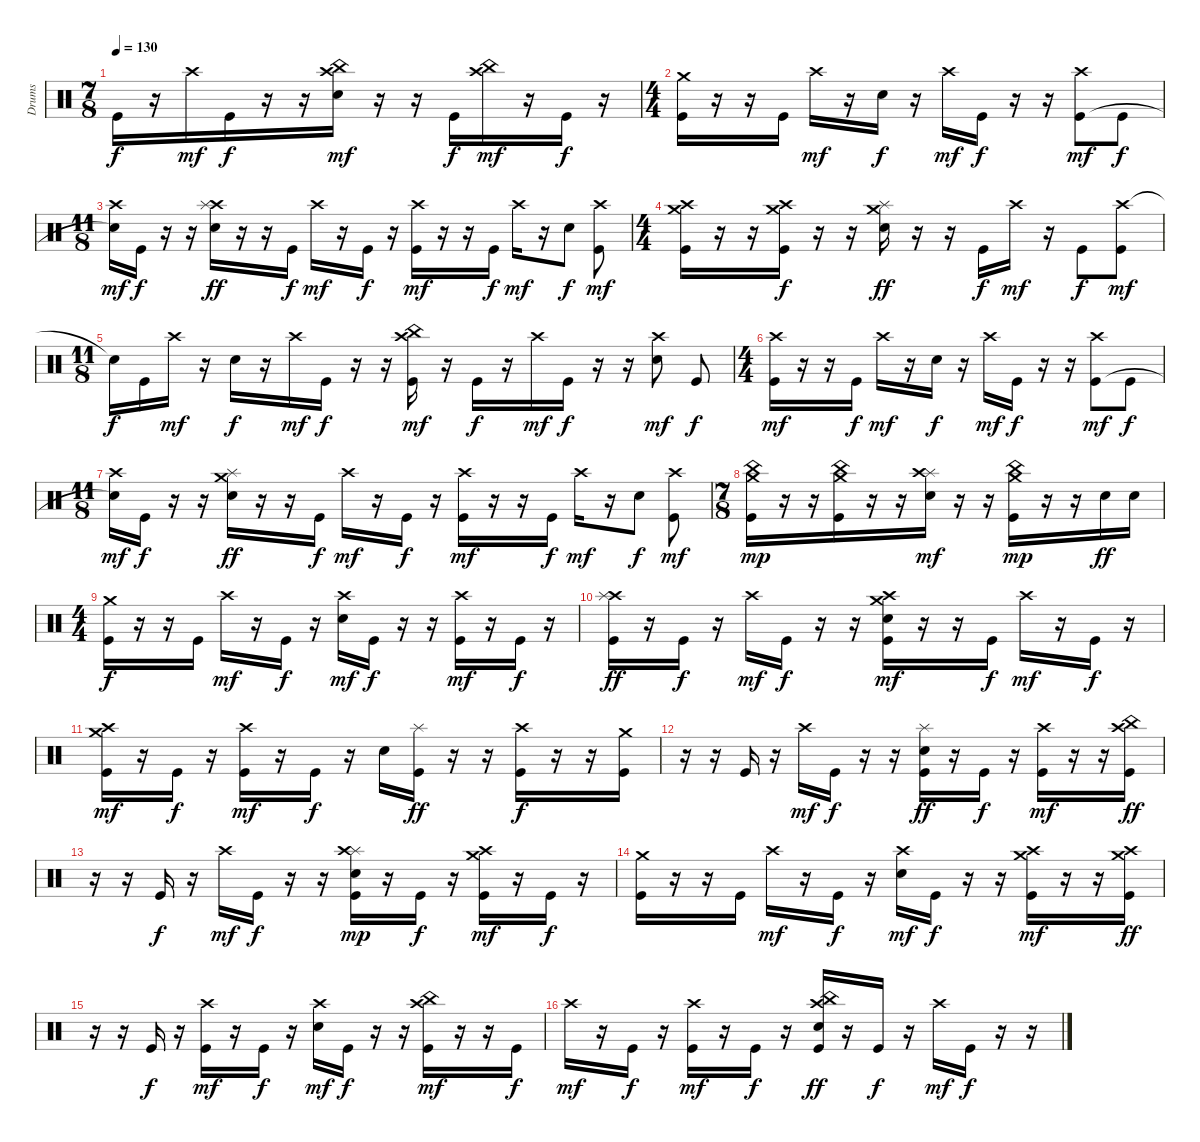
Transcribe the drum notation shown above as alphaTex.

\track ("Drums" "Drums") {instrument percussion}
\staff {score}
\articulation defaults
\ts (7 8)
\tempo 130
\clef neutral
\ks c "Kick (hit)".16{dy f}
r.16 "Crash high (hit)".16{dy mf} "Kick (hit)".16{dy f} r.16 r.16 ("Crash high (hit)" "China (hit)" "Electric Snare (hit)").16{dy mf} r.16 r.16 "Kick (hit)".16{dy f} ("Crash high (hit)" "China (hit)").16{dy mf} r.16 "Kick (hit)".16{dy f} r.16 |
\ts (4 4)
("Crash medium (hit)" "Kick (hit)").16 r.16 r.16 "Kick (hit)".16 "Crash high (hit)".16{dy mf} r.16 "Electric Snare (hit)".16{dy f} r.16 "Crash high (hit)".16{dy mf} "Kick (hit)".16{dy f} r.16 r.16 ("Crash high (hit)" "Kick (hit)").8{dy mf} "Kick (hit)".8{dy f} |
\ts (11 8)
("Crash high (hit)" "Snare (hit)"{t}).16{dy mf} "Kick (hit)".16{dy f} r.16 r.16 ("Crash high (hit)" "Splash (hit)" "Electric Snare (hit)").16{dy ff} r.16 r.16 "Kick (hit)".16{dy f} "Crash high (hit)".16{dy mf} r.16 "Kick (hit)".16{dy f} r.16 ("Crash high (hit)" "Kick (hit)").16{dy mf} r.16 r.16 "Kick (hit)".16{dy f} "Crash high (hit)".16{dy mf} r.16 "Electric Snare (hit)".8{dy f} ("Crash high (hit)" "Kick (hit)").8{dy mf} |
\ts (4 4)
("Crash medium (hit)" "Crash high (hit)" "Kick (hit)").16 r.16 r.16 ("Crash medium (hit)" "Crash high (hit)" "Kick (hit)").16{dy f} r.16 r.16 ("Splash (hit)" "Crash medium (hit)" "Electric Snare (hit)").16{dy ff} r.16 r.16 "Kick (hit)".16{dy f} "Crash high (hit)".16{dy mf} r.16 "Kick (hit)".8{dy f} ("Crash high (hit)" "Kick (hit)").8{dy mf} |
\ts (11 8)
"Snare (hit)"{t}.16{dy f} "Kick (hit)".16 "Crash high (hit)".16{dy mf} r.16 "Electric Snare (hit)".16{dy f} r.16 "Crash high (hit)".16{dy mf} "Kick (hit)".16{dy f} r.16 r.16 ("Crash high (hit)" "China (hit)" "Kick (hit)").16{dy mf} r.16 "Kick (hit)".16{dy f} r.16 "Crash high (hit)".16{dy mf} "Kick (hit)".16{dy f} r.16 r.16 ("Crash high (hit)" "Electric Snare (hit)").8{dy mf} "Kick (hit)".8{dy f} |
\ts (4 4)
("Crash high (hit)" "Kick (hit)").16{dy mf} r.16 r.16 "Kick (hit)".16{dy f} "Crash high (hit)".16{dy mf} r.16 "Electric Snare (hit)".16{dy f} r.16 "Crash high (hit)".16{dy mf} "Kick (hit)".16{dy f} r.16 r.16 ("Crash high (hit)" "Kick (hit)").8{dy mf} "Kick (hit)".8{dy f} |
\ts (11 8)
("Crash high (hit)" "Snare (hit)"{t}).16{dy mf} "Kick (hit)".16{dy f} r.16 r.16 ("Crash medium (hit)" "Splash (hit)" "Electric Snare (hit)").16{dy ff} r.16 r.16 "Kick (hit)".16{dy f} "Crash high (hit)".16{dy mf} r.16 "Kick (hit)".16{dy f} r.16 ("Crash high (hit)" "Kick (hit)").16{dy mf} r.16 r.16 "Kick (hit)".16{dy f} "Crash high (hit)".16{dy mf} r.16 "Electric Snare (hit)".8{dy f} ("Crash high (hit)" "Kick (hit)").8{dy mf} |
\ts (7 8)
("Crash medium (hit)" "China (hit)" "Kick (hit)").16{dy mp} r.16 r.16 ("Crash medium (hit)" "China (hit)" "Kick (hit)").16 r.16 r.16 ("Splash (hit)" "Crash high (hit)" "Electric Snare (hit)").16{dy mf} r.16 r.16 ("Crash medium (hit)" "China (hit)" "Kick (hit)").16{dy mp} r.16 r.16 "Electric Snare (hit)".16{dy ff} "Electric Snare (hit)".16 |
\ts (4 4)
("Crash medium (hit)" "Kick (hit)").16{dy f} r.16 r.16 "Kick (hit)".16 "Crash high (hit)".16{dy mf} r.16 "Kick (hit)".16{dy f} r.16 ("Crash high (hit)" "Electric Snare (hit)").16{dy mf} "Kick (hit)".16{dy f} r.16 r.16 ("Crash high (hit)" "Kick (hit)").16{dy mf} r.16 "Kick (hit)".16{dy f} r.16 |
("Crash high (hit)" "Splash (hit)" "Kick (hit)").16{dy ff} r.16 "Kick (hit)".16{dy f} r.16 "Crash high (hit)".16{dy mf} "Kick (hit)".16{dy f} r.16 r.16 ("Crash medium (hit)" "Crash high (hit)" "Electric Snare (hit)" "Kick (hit)").16{dy mf} r.16 r.16 "Kick (hit)".16{dy f} "Crash high (hit)".16{dy mf} r.16 "Kick (hit)".16{dy f} r.16 |
("Crash high (hit)" "Crash medium (hit)" "Kick (hit)").16{dy mf} r.16 "Kick (hit)".16{dy f} r.16 ("Crash high (hit)" "Kick (hit)").16{dy mf} r.16 "Kick (hit)".16{dy f} r.16 "Electric Snare (hit)".16 ("Splash (hit)" "Kick (hit)").16{dy ff} r.16 r.16 ("Crash high (hit)" "Kick (hit)").16{dy f} r.16 r.16 ("Crash medium (hit)" "Kick (hit)").16 |
r.16 r.16 "Kick (hit)".16 r.16 "Crash high (hit)".16{dy mf} "Kick (hit)".16{dy f} r.16 r.16 ("Splash (hit)" "Electric Snare (hit)" "Kick (hit)").16{dy ff} r.16 "Kick (hit)".16{dy f} r.16 ("Crash high (hit)" "Kick (hit)").16{dy mf} r.16 r.16 ("Crash high (hit)" "China (hit)" "Kick (hit)").16{dy ff} |
r.16 r.16 "Kick (hit)".16{dy f} r.16 "Crash high (hit)".16{dy mf} "Kick (hit)".16{dy f} r.16 r.16 ("Splash (hit)" "Crash high (hit)" "Electric Snare (hit)" "Kick (hit)").16{dy mp} r.16 "Kick (hit)".16{dy f} r.16 ("Crash high (hit)" "Crash medium (hit)" "Kick (hit)").16{dy mf} r.16 "Kick (hit)".16{dy f} r.16 |
("Crash medium (hit)" "Kick (hit)").16 r.16 r.16 "Kick (hit)".16 "Crash high (hit)".16{dy mf} r.16 "Kick (hit)".16{dy f} r.16 ("Crash high (hit)" "Electric Snare (hit)").16{dy mf} "Kick (hit)".16{dy f} r.16 r.16 ("Crash medium (hit)" "Crash high (hit)" "Kick (hit)").16{dy mf} r.16 r.16 ("Crash high (hit)" "Crash medium (hit)" "Kick (hit)").16{dy ff} |
r.16 r.16 "Kick (hit)".16{dy f} r.16 ("Crash high (hit)" "Kick (hit)").16{dy mf} r.16 "Kick (hit)".16{dy f} r.16 ("Crash high (hit)" "Electric Snare (hit)").16{dy mf} "Kick (hit)".16{dy f} r.16 r.16 ("China (hit)" "Crash high (hit)" "Kick (hit)").16{dy mf} r.16 r.16 "Kick (hit)".16{dy f} |
"Crash high (hit)".16{dy mf} r.16 "Kick (hit)".16{dy f} r.16 ("Crash high (hit)" "Kick (hit)").16{dy mf} r.16 "Kick (hit)".16{dy f} r.16 ("Crash high (hit)" "China (hit)" "Electric Snare (hit)" "Kick (hit)").16{dy ff} r.16 "Kick (hit)".16{dy f} r.16 "Crash high (hit)".16{dy mf} "Kick (hit)".16{dy f} r.16 r.16
